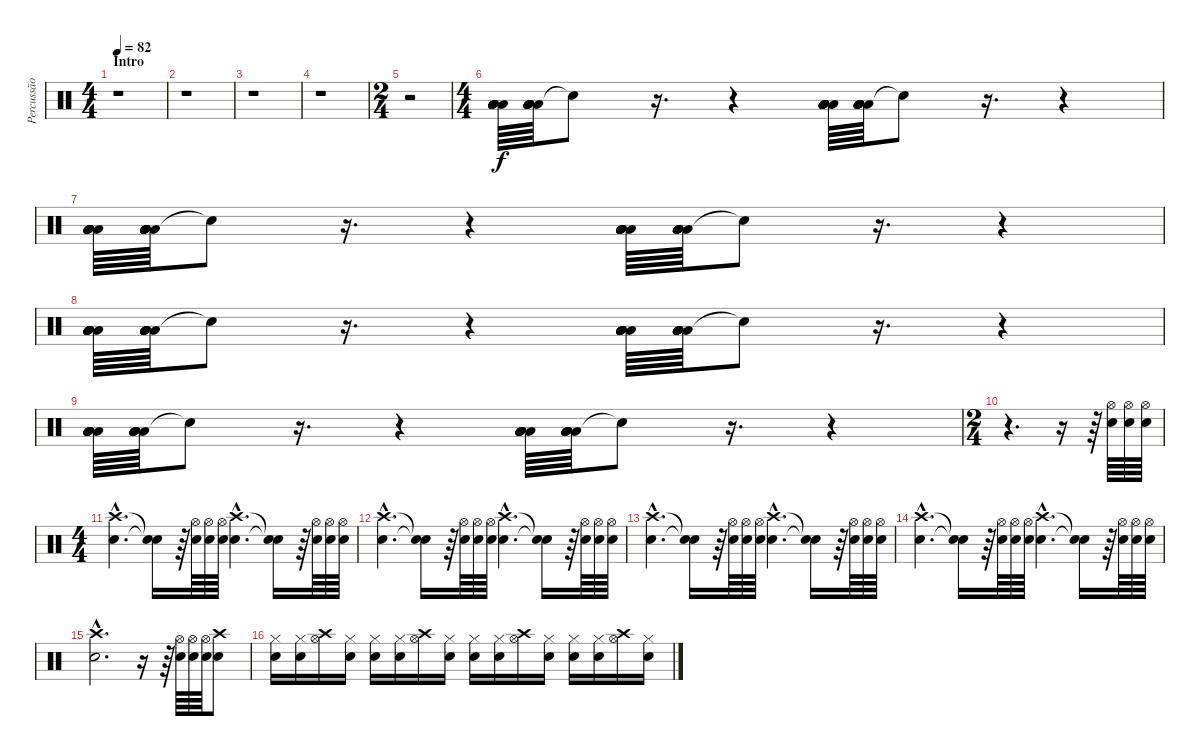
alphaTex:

\track ("Percussão" "Percussão") {instrument percussion}
\staff {score}
\articulation defaults
\ts (4 4)
\section ("" "Intro")
\tempo 82
\clef neutral
\ks c
r.1{dy f} |
r.1 |
r.1 |
r.1 |
\ts (2 4)
r.2 |
\ts (4 4)
("Low Floor Tom (hit)" "Low Floor Tom (hit)" "Low Floor Tom (hit)" "Low Floor Tom (hit)" "Low Floor Tom (hit)" "Low Floor Tom (hit)").64{volume 16} ("Low Floor Tom (hit)" "Low Floor Tom (hit)" "Low Floor Tom (hit)" "Low Floor Tom (hit)" "Low Floor Tom (hit)" "Low Floor Tom (hit)").64 "Snare (hit)"{t}.8 r.16{d} r.4 ("Low Floor Tom (hit)" "Low Floor Tom (hit)" "Low Floor Tom (hit)" "Low Floor Tom (hit)" "Low Floor Tom (hit)" "Low Floor Tom (hit)").64 ("Low Floor Tom (hit)" "Low Floor Tom (hit)" "Low Floor Tom (hit)" "Low Floor Tom (hit)" "Low Floor Tom (hit)" "Low Floor Tom (hit)").64 "Snare (hit)"{t}.8 r.16{d} r.4 |
("Low Floor Tom (hit)" "Low Floor Tom (hit)" "Low Floor Tom (hit)" "Low Floor Tom (hit)" "Low Floor Tom (hit)" "Low Floor Tom (hit)").64 ("Low Floor Tom (hit)" "Low Floor Tom (hit)" "Low Floor Tom (hit)" "Low Floor Tom (hit)" "Low Floor Tom (hit)" "Low Floor Tom (hit)").64 "Snare (hit)"{t}.8 r.16{d} r.4 ("Low Floor Tom (hit)" "Low Floor Tom (hit)" "Low Floor Tom (hit)" "Low Floor Tom (hit)" "Low Floor Tom (hit)" "Low Floor Tom (hit)").64 ("Low Floor Tom (hit)" "Low Floor Tom (hit)" "Low Floor Tom (hit)" "Low Floor Tom (hit)" "Low Floor Tom (hit)" "Low Floor Tom (hit)").64 "Snare (hit)"{t}.8 r.16{d} r.4 |
("Low Floor Tom (hit)" "Low Floor Tom (hit)" "Low Floor Tom (hit)" "Low Floor Tom (hit)" "Low Floor Tom (hit)" "Low Floor Tom (hit)").64 ("Low Floor Tom (hit)" "Low Floor Tom (hit)" "Low Floor Tom (hit)" "Low Floor Tom (hit)" "Low Floor Tom (hit)" "Low Floor Tom (hit)").64 "Snare (hit)"{t}.8 r.16{d} r.4 ("Low Floor Tom (hit)" "Low Floor Tom (hit)" "Low Floor Tom (hit)" "Low Floor Tom (hit)" "Low Floor Tom (hit)" "Low Floor Tom (hit)").64 ("Low Floor Tom (hit)" "Low Floor Tom (hit)" "Low Floor Tom (hit)" "Low Floor Tom (hit)" "Low Floor Tom (hit)" "Low Floor Tom (hit)").64 "Snare (hit)"{t}.8 r.16{d} r.4 |
("Low Floor Tom (hit)" "Low Floor Tom (hit)" "Low Floor Tom (hit)" "Low Floor Tom (hit)" "Low Floor Tom (hit)" "Low Floor Tom (hit)").64 ("Low Floor Tom (hit)" "Low Floor Tom (hit)" "Low Floor Tom (hit)" "Low Floor Tom (hit)" "Low Floor Tom (hit)" "Low Floor Tom (hit)").64 "Snare (hit)"{t}.8 r.16{d} r.4 ("Low Floor Tom (hit)" "Low Floor Tom (hit)" "Low Floor Tom (hit)" "Low Floor Tom (hit)" "Low Floor Tom (hit)" "Low Floor Tom (hit)").64 ("Low Floor Tom (hit)" "Low Floor Tom (hit)" "Low Floor Tom (hit)" "Low Floor Tom (hit)" "Low Floor Tom (hit)" "Low Floor Tom (hit)").64 "Snare (hit)"{t}.8 r.16{d} r.4 |
\ts (2 4)
r.4{d volume 13} r.16 r.64 ("Snare (hit) 2" "Hi-Hat (open)").64 ("Snare (hit) 2" "Hi-Hat (open)").64 ("Snare (hit) 2" "Hi-Hat (open)").64 |
\ts (4 4)
("Snare (hit) 2"{hac} "Crash high (hit)"{hac}).4{d} ("Snare (hit)"{t} "Snare (hit)"{t}).16 r.64 ("Snare (hit) 2" "Hi-Hat (open)").64 ("Snare (hit) 2" "Hi-Hat (open)").64 ("Snare (hit) 2" "Hi-Hat (open)").64 ("Snare (hit) 2"{hac} "Crash high (hit)"{hac}).4{d} ("Snare (hit)"{t} "Snare (hit)"{t}).16 r.64 ("Snare (hit) 2" "Hi-Hat (open)").64 ("Snare (hit) 2" "Hi-Hat (open)").64 ("Snare (hit) 2" "Hi-Hat (open)").64 |
("Snare (hit) 2"{hac} "Crash high (hit)"{hac}).4{d} ("Snare (hit)"{t} "Snare (hit)"{t}).16 r.64 ("Snare (hit) 2" "Hi-Hat (open)").64 ("Snare (hit) 2" "Hi-Hat (open)").64 ("Snare (hit) 2" "Hi-Hat (open)").64 ("Snare (hit) 2"{hac} "Crash high (hit)"{hac}).4{d} ("Snare (hit)"{t} "Snare (hit)"{t}).16 r.64 ("Snare (hit) 2" "Hi-Hat (open)").64 ("Snare (hit) 2" "Hi-Hat (open)").64 ("Snare (hit) 2" "Hi-Hat (open)").64 |
("Snare (hit) 2"{hac} "Crash high (hit)"{hac}).4{d} ("Snare (hit)"{t} "Snare (hit)"{t}).16 r.64 ("Snare (hit) 2" "Hi-Hat (open)").64 ("Snare (hit) 2" "Hi-Hat (open)").64 ("Snare (hit) 2" "Hi-Hat (open)").64 ("Snare (hit) 2"{hac} "Crash high (hit)"{hac}).4{d} ("Snare (hit)"{t} "Snare (hit)"{t}).16 r.64 ("Snare (hit) 2" "Hi-Hat (open)").64 ("Snare (hit) 2" "Hi-Hat (open)").64 ("Snare (hit) 2" "Hi-Hat (open)").64 |
("Snare (hit) 2"{hac} "Crash high (hit)"{hac}).4{d} ("Snare (hit)"{t} "Snare (hit)"{t}).16 r.64 ("Snare (hit) 2" "Hi-Hat (open)").64 ("Snare (hit) 2" "Hi-Hat (open)").64 ("Snare (hit) 2" "Hi-Hat (open)").64 ("Snare (hit) 2"{hac} "Crash high (hit)"{hac}).4{d} ("Snare (hit)"{t} "Snare (hit)"{t}).16 r.64 ("Snare (hit) 2" "Hi-Hat (open)").64 ("Snare (hit) 2" "Hi-Hat (open)").64 ("Snare (hit) 2" "Hi-Hat (open)").64 |
("Snare (hit) 2"{hac} "Crash high (hit)"{hac}).2{d} r.16 r.64 ("Snare (hit) 2" "Hi-Hat (open)").64 ("Snare (hit) 2" "Hi-Hat (open)").64 ("Snare (hit) 2" "Hi-Hat (open)").64 ("Snare (hit) 2" "Crash high (hit)").8 |
("Snare (hit) 2" "Hi-Hat (closed)").16 ("Snare (hit) 2" "Hi-Hat (closed)").16 ("Hi-Hat (open)" "Crash high (hit)").16 ("Snare (hit) 2" "Hi-Hat (closed)").16 ("Snare (hit) 2" "Hi-Hat (closed)").16 ("Snare (hit) 2" "Hi-Hat (closed)").16 ("Hi-Hat (open)" "Crash high (hit)").16 ("Snare (hit) 2" "Hi-Hat (closed)").16 ("Snare (hit) 2" "Hi-Hat (closed)").16 ("Snare (hit) 2" "Hi-Hat (closed)").16 ("Hi-Hat (open)" "Crash high (hit)").16 ("Snare (hit) 2" "Hi-Hat (closed)").16 ("Snare (hit) 2" "Hi-Hat (closed)").16 ("Snare (hit) 2" "Hi-Hat (closed)").16 ("Hi-Hat (open)" "Crash high (hit)").16 ("Snare (hit) 2" "Hi-Hat (closed)").16
